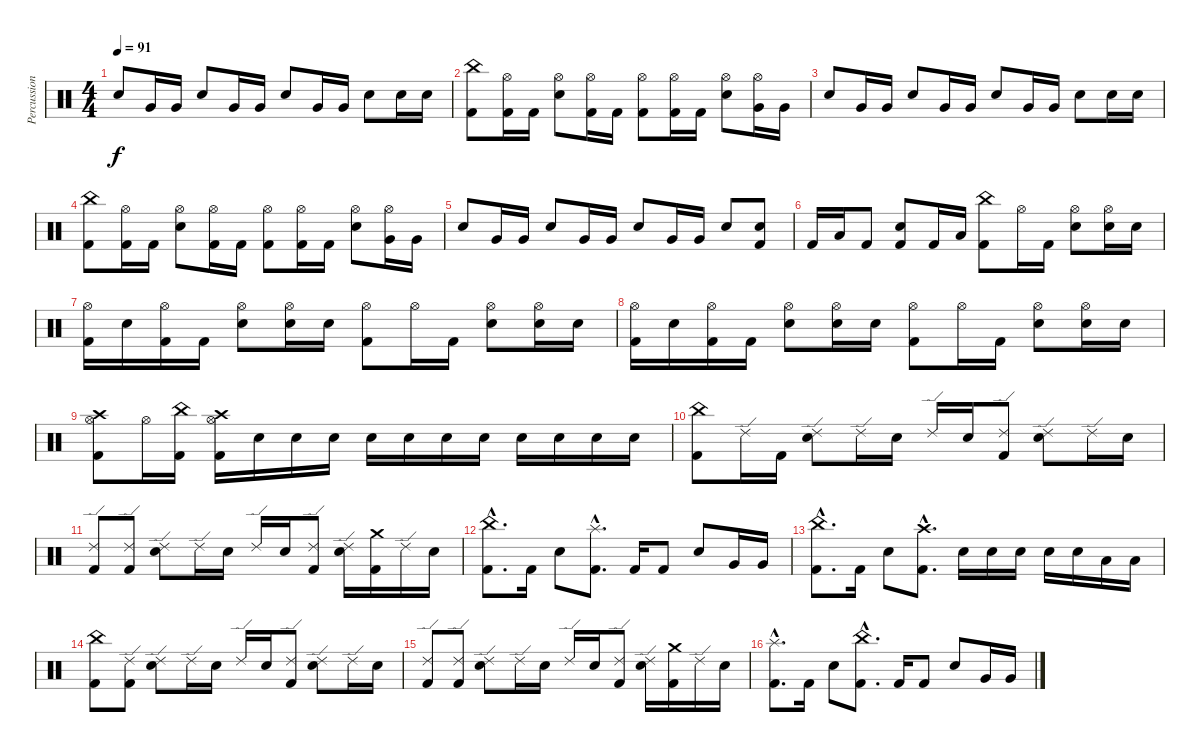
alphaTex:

\track ("Percussion" "Percussion") {instrument percussion}
\staff {score}
\articulation defaults
\ts (4 4)
\tempo 91
\clef neutral
\ks c "Electric Snare (hit)".8{dy f} "Very Low Tom (hit)".16 "Very Low Tom (hit)".16 "Electric Snare (hit)".8 "Very Low Tom (hit)".16 "Very Low Tom (hit)".16 "Electric Snare (hit)".8 "Very Low Tom (hit)".16 "Very Low Tom (hit)".16 "Electric Snare (hit)".8 "Electric Snare (hit)".16 "Electric Snare (hit)".16
|
("Kick (hit) 2" "China (hit)").8 ("Kick (hit) 2" "Hi-Hat (open)").16 "Kick (hit) 2".16 ("Hi-Hat (open)" "Electric Snare (hit)").8 ("Hi-Hat (open)" "Kick (hit) 2").16 "Kick (hit) 2".16 ("Kick (hit) 2" "Hi-Hat (open)").8 ("Kick (hit) 2" "Hi-Hat (open)").16 "Kick (hit) 2".16 ("Electric Snare (hit)" "Hi-Hat (open)").8 ("Very Low Tom (hit)" "Hi-Hat (open)").16 "Very Low Tom (hit)".16 |
"Electric Snare (hit)".8 "Very Low Tom (hit)".16 "Very Low Tom (hit)".16 "Electric Snare (hit)".8 "Very Low Tom (hit)".16 "Very Low Tom (hit)".16 "Electric Snare (hit)".8 "Very Low Tom (hit)".16 "Very Low Tom (hit)".16 "Electric Snare (hit)".8 "Electric Snare (hit)".16 "Electric Snare (hit)".16 |
("Kick (hit) 2" "China (hit)").8 ("Hi-Hat (open)" "Kick (hit) 2").16 "Kick (hit) 2".16 ("Electric Snare (hit)" "Hi-Hat (open)").8 ("Kick (hit) 2" "Hi-Hat (open)").16 "Kick (hit) 2".16 ("Hi-Hat (open)" "Kick (hit) 2").8 ("Hi-Hat (open)" "Kick (hit) 2").16 "Kick (hit) 2".16 ("Hi-Hat (open)" "Electric Snare (hit)").8 ("Hi-Hat (open)" "Very Low Tom (hit)").16 "Very Low Tom (hit)".16 |
"Electric Snare (hit)".8 "Very Low Tom (hit)".16 "Very Low Tom (hit)".16 "Electric Snare (hit)".8 "Very Low Tom (hit)".16 "Very Low Tom (hit)".16 "Electric Snare (hit)".8 "Very Low Tom (hit)".16 "Very Low Tom (hit)".16 "Electric Snare (hit)".8 ("Electric Snare (hit)" "Kick (hit) 2").8 |
"Kick (hit) 2".16 "Low Floor Tom (hit)".16 "Kick (hit) 2".8 ("Kick (hit) 2" "Electric Snare (hit)").8 "Kick (hit) 2".16 "Low Floor Tom (hit)".16 ("China (hit)" "Kick (hit) 2").8 "Hi-Hat (open)".16 "Kick (hit) 2".16 ("Hi-Hat (open)" "Electric Snare (hit)").8 ("Hi-Hat (open)" "Electric Snare (hit)").16 "Electric Snare (hit)".16 |
("Hi-Hat (open)" "Kick (hit) 2").16 "Electric Snare (hit)".16 ("Kick (hit) 2" "Hi-Hat (open)").16 "Kick (hit) 2".16 ("Hi-Hat (open)" "Electric Snare (hit)").8 ("Hi-Hat (open)" "Electric Snare (hit)").16 "Electric Snare (hit)".16 ("Hi-Hat (open)" "Kick (hit) 2").8 "Hi-Hat (open)".16 "Kick (hit) 2".16 ("Electric Snare (hit)" "Hi-Hat (open)").8 ("Hi-Hat (open)" "Electric Snare (hit)").16 "Electric Snare (hit)".16 |
("Kick (hit) 2" "Hi-Hat (open)").16 "Electric Snare (hit)".16 ("Hi-Hat (open)" "Kick (hit) 2").16 "Kick (hit) 2".16 ("Hi-Hat (open)" "Electric Snare (hit)").8 ("Electric Snare (hit)" "Hi-Hat (open)").16 "Electric Snare (hit)".16 ("Hi-Hat (open)" "Kick (hit) 2").8 "Hi-Hat (open)".16 "Kick (hit) 2".16 ("Electric Snare (hit)" "Hi-Hat (open)").8 ("Electric Snare (hit)" "Hi-Hat (open)").16 "Electric Snare (hit)".16 |
("Kick (hit) 2" "Hi-Hat (open)" "Crash high (hit)").8 "Hi-Hat (open)".16 ("Kick (hit) 2" "China (hit)").16 ("Kick (hit) 2" "Hi-Hat (open)" "Crash high (hit)").16 "Electric Snare (hit)".16 "Electric Snare (hit)".16 "Electric Snare (hit)".16 "Electric Snare (hit)".16 "Electric Snare (hit)".16 "Electric Snare (hit)".16 "Electric Snare (hit)".16 "Electric Snare (hit)".16 "Electric Snare (hit)".16 "Electric Snare (hit)".16 "Electric Snare (hit)".16 |
("Kick (hit) 2" "China (hit)").8 "Ride (edge) 2".16 "Kick (hit) 2".16 ("Electric Snare (hit)" "Ride (edge) 2").8 "Ride (edge) 2".16 "Electric Snare (hit)".16 "Ride (edge) 2".16 "Electric Snare (hit)".16 ("Ride (edge) 2" "Kick (hit) 2").8 ("Electric Snare (hit)" "Ride (edge) 2").8 "Ride (edge) 2".16 "Electric Snare (hit)".16 |
("Kick (hit) 2" "Ride (edge) 2").8 ("Kick (hit) 2" "Ride (edge) 2").8 ("Electric Snare (hit)" "Ride (edge) 2").8 "Ride (edge) 2".16 "Electric Snare (hit)".16 "Ride (edge) 2".16 "Electric Snare (hit)".16 ("Ride (edge) 2" "Kick (hit) 2").8 ("Ride (edge) 2" "Electric Snare (hit)").16 ("Crash medium (hit)" "Kick (hit) 2").16 "Ride (edge) 2".16 "Electric Snare (hit)".16 |
("Kick (hit) 2"{hac} "China (hit)"{hac}).8{d} "Kick (hit) 2".16 "Electric Snare (hit)".8 ("Kick (hit) 2"{hac} "Splash (hit)"{hac}).8{d} "Kick (hit) 2".16 "Kick (hit) 2".8 "Electric Snare (hit)".8 "Very Low Tom (hit)".16 "Very Low Tom (hit)".16 |
("Kick (hit) 2"{hac} "China (hit)"{hac}).8{d} "Kick (hit) 2".16 "Electric Snare (hit)".8 ("Crash high (hit)"{hac} "Kick (hit) 2"{hac}).8{d} "Electric Snare (hit)".16 "Electric Snare (hit)".16 "Electric Snare (hit)".16 "Electric Snare (hit)".16 "Electric Snare (hit)".16 "Low Tom (hit)".16 "Low Tom (hit)".16 |
("China (hit)" "Kick (hit) 2").8 ("Kick (hit) 2" "Ride (edge) 2").8 ("Ride (edge) 2" "Electric Snare (hit)").8 "Ride (edge) 2".16 "Electric Snare (hit)".16 "Ride (edge) 2".16 "Electric Snare (hit)".16 ("Kick (hit) 2" "Ride (edge) 2").8 ("Electric Snare (hit)" "Ride (edge) 2").8 "Ride (edge) 2".16 "Electric Snare (hit)".16 |
("Ride (edge) 2" "Kick (hit) 2").8 ("Kick (hit) 2" "Ride (edge) 2").8 ("Electric Snare (hit)" "Ride (edge) 2").8 "Ride (edge) 2".16 "Electric Snare (hit)".16 "Ride (edge) 2".16 "Electric Snare (hit)".16 ("Kick (hit) 2" "Ride (edge) 2").8 ("Ride (edge) 2" "Electric Snare (hit)").16 ("Crash medium (hit)" "Kick (hit) 2").16 "Ride (edge) 2".16 "Electric Snare (hit)".16 |
("Splash (hit)"{hac} "Kick (hit) 2"{hac}).8{d} "Kick (hit) 2".16 "Electric Snare (hit)".8 ("Kick (hit) 2"{hac} "China (hit)"{hac}).8{d} "Kick (hit) 2".16 "Kick (hit) 2".8 "Electric Snare (hit)".8 "Very Low Tom (hit)".16 "Very Low Tom (hit)".16
